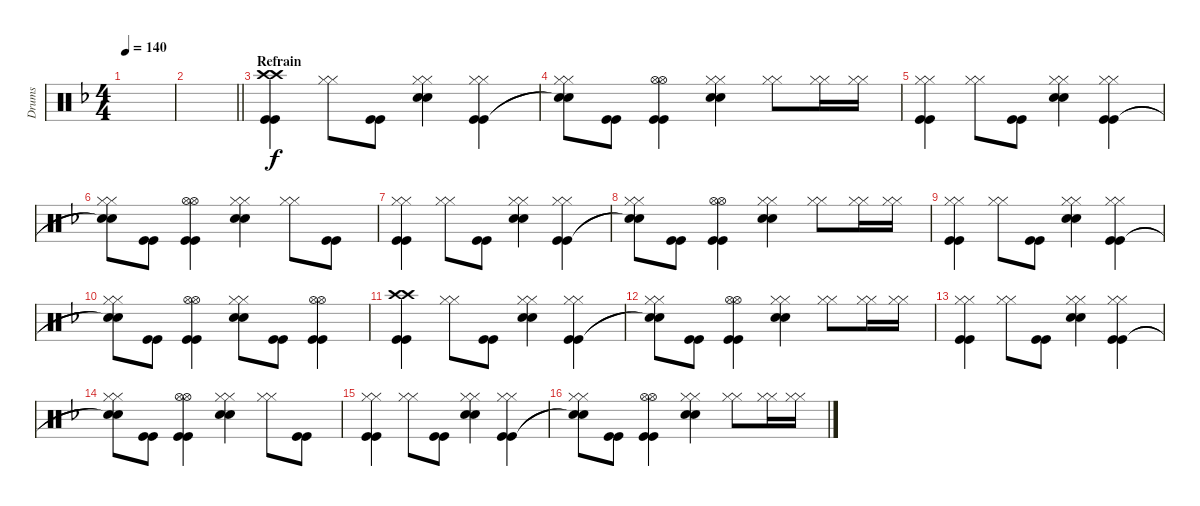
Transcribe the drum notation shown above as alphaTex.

\track ("Drums" "Drums") {instrument percussion}
\staff {score}
\articulation defaults
\ts (4 4)
\tempo 140
\clef neutral
\ks f
|
\barLineRight lightlight
|
\section ("" "Refrain")
("Crash high (hit)" "Crash high (hit)" "Kick (hit)" "Kick (hit)").4 ("Hi-Hat (closed)" "Hi-Hat (closed)").8 ("Kick (hit)" "Kick (hit)").8 ("Hi-Hat (closed)" "Hi-Hat (closed)" "Snare (hit) 2" "Snare (hit) 2").4 ("Hi-Hat (closed)" "Hi-Hat (closed)" "Kick (hit)" "Kick (hit)").4 |
("Hi-Hat (closed)" "Hi-Hat (closed)" "Snare (hit)"{t} "Snare (hit)"{t}).8 ("Kick (hit)" "Kick (hit)").8 ("Hi-Hat (open)" "Hi-Hat (open)" "Kick (hit)" "Kick (hit)").4 ("Hi-Hat (closed)" "Hi-Hat (closed)" "Snare (hit) 2" "Snare (hit) 2").4 ("Hi-Hat (closed)" "Hi-Hat (closed)").8 ("Hi-Hat (closed)" "Hi-Hat (closed)").16 ("Hi-Hat (closed)" "Hi-Hat (closed)").16 |
("Hi-Hat (closed)" "Hi-Hat (closed)" "Kick (hit)" "Kick (hit)").4 ("Hi-Hat (closed)" "Hi-Hat (closed)").8 ("Kick (hit)" "Kick (hit)").8 ("Hi-Hat (closed)" "Hi-Hat (closed)" "Snare (hit) 2" "Snare (hit) 2").4 ("Hi-Hat (closed)" "Hi-Hat (closed)" "Kick (hit)" "Kick (hit)").4 |
("Hi-Hat (closed)" "Hi-Hat (closed)" "Snare (hit)"{t} "Snare (hit)"{t}).8 ("Kick (hit)" "Kick (hit)").8 ("Hi-Hat (open)" "Hi-Hat (open)" "Kick (hit)" "Kick (hit)").4 ("Hi-Hat (closed)" "Hi-Hat (closed)" "Snare (hit) 2" "Snare (hit) 2").4 ("Hi-Hat (closed)" "Hi-Hat (closed)").8 ("Kick (hit)" "Kick (hit)").8 |
("Hi-Hat (closed)" "Hi-Hat (closed)" "Kick (hit)" "Kick (hit)").4 ("Hi-Hat (closed)" "Hi-Hat (closed)").8 ("Kick (hit)" "Kick (hit)").8 ("Hi-Hat (closed)" "Hi-Hat (closed)" "Snare (hit) 2" "Snare (hit) 2").4 ("Hi-Hat (closed)" "Hi-Hat (closed)" "Kick (hit)" "Kick (hit)").4 |
("Hi-Hat (closed)" "Hi-Hat (closed)" "Snare (hit)"{t} "Snare (hit)"{t}).8 ("Kick (hit)" "Kick (hit)").8 ("Hi-Hat (open)" "Hi-Hat (open)" "Kick (hit)" "Kick (hit)").4 ("Hi-Hat (closed)" "Hi-Hat (closed)" "Snare (hit) 2" "Snare (hit) 2").4 ("Hi-Hat (closed)" "Hi-Hat (closed)").8 ("Hi-Hat (closed)" "Hi-Hat (closed)").16 ("Hi-Hat (closed)" "Hi-Hat (closed)").16 |
("Hi-Hat (closed)" "Hi-Hat (closed)" "Kick (hit)" "Kick (hit)").4 ("Hi-Hat (closed)" "Hi-Hat (closed)").8 ("Kick (hit)" "Kick (hit)").8 ("Hi-Hat (closed)" "Hi-Hat (closed)" "Snare (hit) 2" "Snare (hit) 2").4 ("Hi-Hat (closed)" "Hi-Hat (closed)" "Kick (hit)" "Kick (hit)").4 |
("Hi-Hat (closed)" "Hi-Hat (closed)" "Snare (hit)"{t} "Snare (hit)"{t}).8 ("Kick (hit)" "Kick (hit)").8 ("Hi-Hat (open)" "Hi-Hat (open)" "Kick (hit)" "Kick (hit)").4 ("Hi-Hat (closed)" "Hi-Hat (closed)" "Snare (hit) 2" "Snare (hit) 2").8 ("Kick (hit)" "Kick (hit)").8 ("Hi-Hat (open)" "Hi-Hat (open)" "Kick (hit)" "Kick (hit)").4 |
("Crash high (hit)" "Crash high (hit)" "Kick (hit)" "Kick (hit)").4 ("Hi-Hat (closed)" "Hi-Hat (closed)").8 ("Kick (hit)" "Kick (hit)").8 ("Hi-Hat (closed)" "Hi-Hat (closed)" "Snare (hit) 2" "Snare (hit) 2").4 ("Hi-Hat (closed)" "Hi-Hat (closed)" "Kick (hit)" "Kick (hit)").4 |
("Hi-Hat (closed)" "Hi-Hat (closed)" "Snare (hit)"{t} "Snare (hit)"{t}).8 ("Kick (hit)" "Kick (hit)").8 ("Hi-Hat (open)" "Hi-Hat (open)" "Kick (hit)" "Kick (hit)").4 ("Hi-Hat (closed)" "Hi-Hat (closed)" "Snare (hit) 2" "Snare (hit) 2").4 ("Hi-Hat (closed)" "Hi-Hat (closed)").8 ("Hi-Hat (closed)" "Hi-Hat (closed)").16 ("Hi-Hat (closed)" "Hi-Hat (closed)").16 |
("Hi-Hat (closed)" "Hi-Hat (closed)" "Kick (hit)" "Kick (hit)").4 ("Hi-Hat (closed)" "Hi-Hat (closed)").8 ("Kick (hit)" "Kick (hit)").8 ("Hi-Hat (closed)" "Hi-Hat (closed)" "Snare (hit) 2" "Snare (hit) 2").4 ("Hi-Hat (closed)" "Hi-Hat (closed)" "Kick (hit)" "Kick (hit)").4 |
("Hi-Hat (closed)" "Hi-Hat (closed)" "Snare (hit)"{t} "Snare (hit)"{t}).8 ("Kick (hit)" "Kick (hit)").8 ("Hi-Hat (open)" "Hi-Hat (open)" "Kick (hit)" "Kick (hit)").4 ("Hi-Hat (closed)" "Hi-Hat (closed)" "Snare (hit) 2" "Snare (hit) 2").4 ("Hi-Hat (closed)" "Hi-Hat (closed)").8 ("Kick (hit)" "Kick (hit)").8 |
("Hi-Hat (closed)" "Hi-Hat (closed)" "Kick (hit)" "Kick (hit)").4 ("Hi-Hat (closed)" "Hi-Hat (closed)").8 ("Kick (hit)" "Kick (hit)").8 ("Hi-Hat (closed)" "Hi-Hat (closed)" "Snare (hit) 2" "Snare (hit) 2").4 ("Hi-Hat (closed)" "Hi-Hat (closed)" "Kick (hit)" "Kick (hit)").4 |
("Hi-Hat (closed)" "Hi-Hat (closed)" "Snare (hit)"{t} "Snare (hit)"{t}).8 ("Kick (hit)" "Kick (hit)").8 ("Hi-Hat (open)" "Hi-Hat (open)" "Kick (hit)" "Kick (hit)").4 ("Hi-Hat (closed)" "Hi-Hat (closed)" "Snare (hit) 2" "Snare (hit) 2").4 ("Hi-Hat (closed)" "Hi-Hat (closed)").8 ("Hi-Hat (closed)" "Hi-Hat (closed)").16 ("Hi-Hat (closed)" "Hi-Hat (closed)").16
